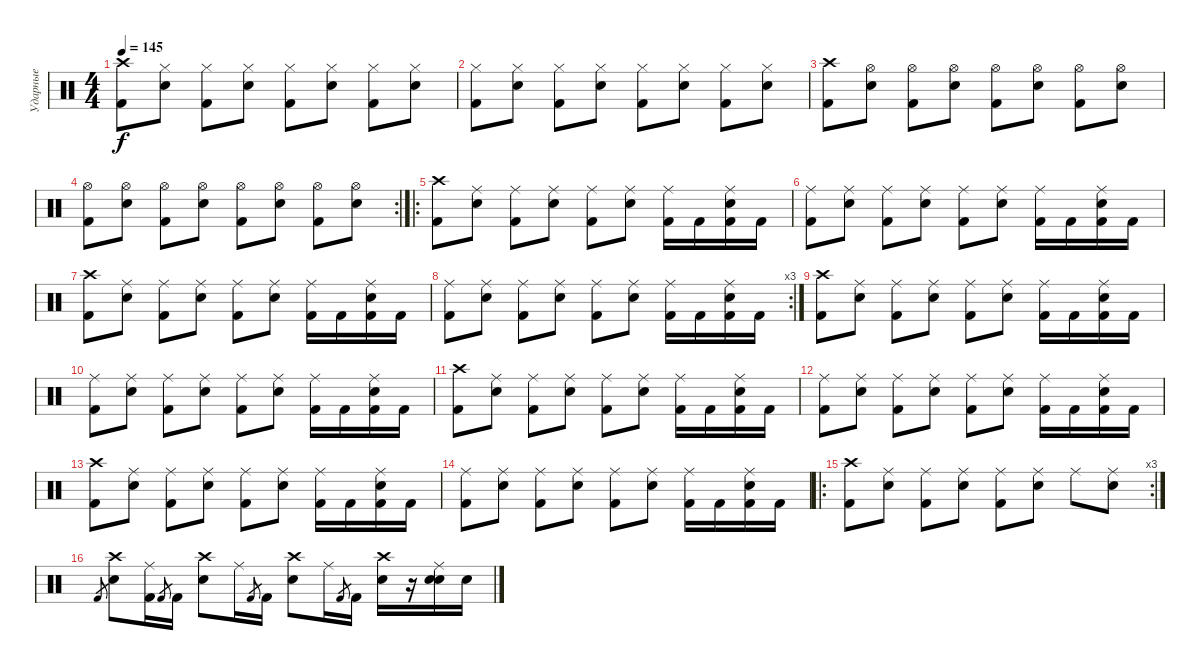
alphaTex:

\track ("Ударные" "Ударные") {instrument percussion}
\staff {score}
\articulation defaults
\ts (4 4)
\tempo 145
\clef neutral
\ks c
("Kick (hit) 2" "Crash high (hit)").8{dy f} ("Electric Snare (hit)" "Hi-Hat (closed)").8 ("Kick (hit) 2" "Hi-Hat (closed)").8 ("Electric Snare (hit)" "Hi-Hat (closed)").8 ("Kick (hit) 2" "Hi-Hat (closed)").8 ("Electric Snare (hit)" "Hi-Hat (closed)").8 ("Kick (hit) 2" "Hi-Hat (closed)").8 ("Electric Snare (hit)" "Hi-Hat (closed)").8 |
("Kick (hit) 2" "Hi-Hat (closed)").8 ("Electric Snare (hit)" "Hi-Hat (closed)").8 ("Kick (hit) 2" "Hi-Hat (closed)").8 ("Electric Snare (hit)" "Hi-Hat (closed)").8 ("Kick (hit) 2" "Hi-Hat (closed)").8 ("Electric Snare (hit)" "Hi-Hat (closed)").8 ("Kick (hit) 2" "Hi-Hat (closed)").8 ("Electric Snare (hit)" "Hi-Hat (closed)").8 |
("Kick (hit) 2" "Crash high (hit)").8 ("Electric Snare (hit)" "Hi-Hat (open)").8 ("Kick (hit) 2" "Hi-Hat (open)").8 ("Electric Snare (hit)" "Hi-Hat (open)").8 ("Kick (hit) 2" "Hi-Hat (open)").8 ("Electric Snare (hit)" "Hi-Hat (open)").8 ("Kick (hit) 2" "Hi-Hat (open)").8 ("Electric Snare (hit)" "Hi-Hat (open)").8 |
\rc 2
("Kick (hit) 2" "Hi-Hat (open)").8 ("Electric Snare (hit)" "Hi-Hat (open)").8 ("Kick (hit) 2" "Hi-Hat (open)").8 ("Electric Snare (hit)" "Hi-Hat (open)").8 ("Kick (hit) 2" "Hi-Hat (open)").8 ("Electric Snare (hit)" "Hi-Hat (open)").8 ("Kick (hit) 2" "Hi-Hat (open)").8 ("Electric Snare (hit)" "Hi-Hat (open)").8 |
\ro
("Kick (hit) 2" "Crash high (hit)").8 ("Electric Snare (hit)" "Ride (middle)").8 ("Kick (hit) 2" "Ride (middle)").8 ("Electric Snare (hit)" "Ride (middle)").8 ("Kick (hit) 2" "Ride (middle)").8 ("Electric Snare (hit)" "Ride (middle)").8 ("Kick (hit) 2" "Ride (middle)").16 "Kick (hit) 2".16 ("Kick (hit) 2" "Ride (middle)" "Electric Snare (hit)").16 "Kick (hit) 2".16 |
("Kick (hit) 2" "Ride (middle)").8 ("Electric Snare (hit)" "Ride (middle)").8 ("Kick (hit) 2" "Ride (middle)").8 ("Electric Snare (hit)" "Ride (middle)").8 ("Kick (hit) 2" "Ride (middle)").8 ("Electric Snare (hit)" "Ride (middle)").8 ("Kick (hit) 2" "Ride (middle)").16 "Kick (hit) 2".16 ("Kick (hit) 2" "Ride (middle)" "Electric Snare (hit)").16 "Kick (hit) 2".16 |
("Kick (hit) 2" "Crash high (hit)").8 ("Electric Snare (hit)" "Ride (middle)").8 ("Kick (hit) 2" "Ride (middle)").8 ("Electric Snare (hit)" "Ride (middle)").8 ("Kick (hit) 2" "Ride (middle)").8 ("Electric Snare (hit)" "Ride (middle)").8 ("Kick (hit) 2" "Ride (middle)").16 "Kick (hit) 2".16 ("Kick (hit) 2" "Ride (middle)" "Electric Snare (hit)").16 "Kick (hit) 2".16 |
\rc 3
("Kick (hit) 2" "Ride (middle)").8 ("Electric Snare (hit)" "Ride (middle)").8 ("Kick (hit) 2" "Ride (middle)").8 ("Electric Snare (hit)" "Ride (middle)").8 ("Kick (hit) 2" "Ride (middle)").8 ("Electric Snare (hit)" "Ride (middle)").8 ("Kick (hit) 2" "Ride (middle)").16 "Kick (hit) 2".16 ("Kick (hit) 2" "Ride (middle)" "Electric Snare (hit)").16 "Kick (hit) 2".16 |
("Kick (hit) 2" "Crash high (hit)").8 ("Electric Snare (hit)" "Ride (middle)").8 ("Kick (hit) 2" "Ride (middle)").8 ("Electric Snare (hit)" "Ride (middle)").8 ("Kick (hit) 2" "Ride (middle)").8 ("Electric Snare (hit)" "Ride (middle)").8 ("Kick (hit) 2" "Ride (middle)").16 "Kick (hit) 2".16 ("Kick (hit) 2" "Ride (middle)" "Electric Snare (hit)").16 "Kick (hit) 2".16 |
("Kick (hit) 2" "Ride (middle)").8 ("Electric Snare (hit)" "Ride (middle)").8 ("Kick (hit) 2" "Ride (middle)").8 ("Electric Snare (hit)" "Ride (middle)").8 ("Kick (hit) 2" "Ride (middle)").8 ("Electric Snare (hit)" "Ride (middle)").8 ("Kick (hit) 2" "Ride (middle)").16 "Kick (hit) 2".16 ("Kick (hit) 2" "Ride (middle)" "Electric Snare (hit)").16 "Kick (hit) 2".16 |
("Kick (hit) 2" "Crash high (hit)").8 ("Electric Snare (hit)" "Ride (middle)").8 ("Kick (hit) 2" "Ride (middle)").8 ("Electric Snare (hit)" "Ride (middle)").8 ("Kick (hit) 2" "Ride (middle)").8 ("Electric Snare (hit)" "Ride (middle)").8 ("Kick (hit) 2" "Ride (middle)").16 "Kick (hit) 2".16 ("Kick (hit) 2" "Ride (middle)" "Electric Snare (hit)").16 "Kick (hit) 2".16 |
("Kick (hit) 2" "Ride (middle)").8 ("Electric Snare (hit)" "Ride (middle)").8 ("Kick (hit) 2" "Ride (middle)").8 ("Electric Snare (hit)" "Ride (middle)").8 ("Kick (hit) 2" "Ride (middle)").8 ("Electric Snare (hit)" "Ride (middle)").8 ("Kick (hit) 2" "Ride (middle)").16 "Kick (hit) 2".16 ("Kick (hit) 2" "Ride (middle)" "Electric Snare (hit)").16 "Kick (hit) 2".16 |
("Kick (hit) 2" "Crash high (hit)").8 ("Electric Snare (hit)" "Ride (middle)").8 ("Kick (hit) 2" "Ride (middle)").8 ("Electric Snare (hit)" "Ride (middle)").8 ("Kick (hit) 2" "Ride (middle)").8 ("Electric Snare (hit)" "Ride (middle)").8 ("Kick (hit) 2" "Ride (middle)").16 "Kick (hit) 2".16 ("Kick (hit) 2" "Ride (middle)" "Electric Snare (hit)").16 "Kick (hit) 2".16 |
("Kick (hit) 2" "Ride (middle)").8 ("Electric Snare (hit)" "Ride (middle)").8 ("Kick (hit) 2" "Ride (middle)").8 ("Electric Snare (hit)" "Ride (middle)").8 ("Kick (hit) 2" "Ride (middle)").8 ("Electric Snare (hit)" "Ride (middle)").8 ("Kick (hit) 2" "Ride (middle)").16 "Kick (hit) 2".16 ("Kick (hit) 2" "Ride (middle)" "Electric Snare (hit)").16 "Kick (hit) 2".16 |
\ro
\rc 3
("Kick (hit) 2" "Crash high (hit)").8 ("Electric Snare (hit)" "Ride (middle)").8 ("Kick (hit) 2" "Ride (middle)").8 ("Electric Snare (hit)" "Ride (middle)").8 ("Kick (hit) 2" "Ride (middle)").8 ("Electric Snare (hit)" "Ride (middle)").8 "Ride (middle)".8 ("Ride (middle)" "Electric Snare (hit)").8 |
"Kick (hit) 2".8{gr} ("Electric Snare (hit)" "Crash high (hit)").8 ("Kick (hit) 2" "Ride (middle)").16 "Kick (hit) 2".8{gr} "Kick (hit) 2".16 ("Electric Snare (hit)" "Crash high (hit)").8 "Ride (middle)".16 "Kick (hit) 2".8{gr} "Kick (hit) 2".16 ("Electric Snare (hit)" "Crash high (hit)").8 "Ride (middle)".16 "Kick (hit) 2".8{gr} "Kick (hit) 2".16 ("Electric Snare (hit)" "Crash high (hit)").16 r.16 ("Electric Snare (hit)" "Ride (middle)" "Electric Snare (hit)").16 "Electric Snare (hit)".16
